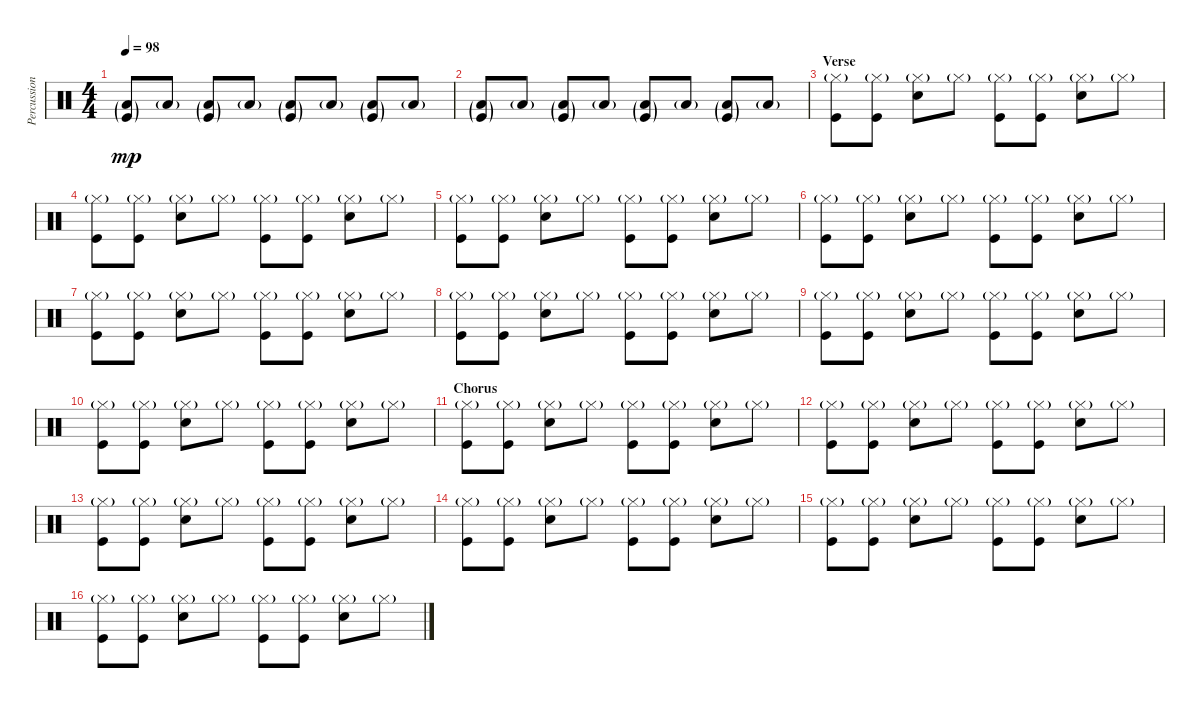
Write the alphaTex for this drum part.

\track ("Percussions" "Percussion") {instrument percussion}
\staff {score}
\articulation defaults
\ts (4 4)
\tempo 98
\clef neutral
\ks c
("Low Floor Tom (hit)"{g} "Kick (hit)"{g}).8{dy mp} "Low Floor Tom (hit)"{g}.8 ("Low Floor Tom (hit)"{g} "Kick (hit)"{g}).8 "Low Floor Tom (hit)"{g}.8 ("Low Floor Tom (hit)"{g} "Kick (hit)"{g}).8 "Low Floor Tom (hit)"{g}.8 ("Low Floor Tom (hit)"{g} "Kick (hit)"{g}).8 "Low Floor Tom (hit)"{g}.8 |
("Low Floor Tom (hit)"{g} "Kick (hit)"{g}).8 "Low Floor Tom (hit)"{g}.8 ("Low Floor Tom (hit)"{g} "Kick (hit)"{g}).8 "Low Floor Tom (hit)"{g}.8 ("Low Floor Tom (hit)"{g} "Kick (hit)"{g}).8 "Low Floor Tom (hit)"{g}.8 ("Low Floor Tom (hit)"{g} "Kick (hit)"{g}).8 "Low Floor Tom (hit)"{g}.8 |
\section ("" "Verse")
("Hi-Hat (closed)"{g} "Kick (hit)").8{volume 13} ("Hi-Hat (closed)"{g} "Kick (hit)").8 ("Hi-Hat (closed)"{g} "Snare (hit) 2").8 "Hi-Hat (closed)"{g}.8 ("Hi-Hat (closed)"{g} "Kick (hit)").8 ("Hi-Hat (closed)"{g} "Kick (hit)").8 ("Hi-Hat (closed)"{g} "Snare (hit) 2").8 "Hi-Hat (closed)"{g}.8 |
("Hi-Hat (closed)"{g} "Kick (hit)").8 ("Hi-Hat (closed)"{g} "Kick (hit)").8 ("Hi-Hat (closed)"{g} "Snare (hit) 2").8 "Hi-Hat (closed)"{g}.8 ("Hi-Hat (closed)"{g} "Kick (hit)").8 ("Hi-Hat (closed)"{g} "Kick (hit)").8 ("Hi-Hat (closed)"{g} "Snare (hit) 2").8 "Hi-Hat (closed)"{g}.8 |
("Hi-Hat (closed)"{g} "Kick (hit)").8 ("Hi-Hat (closed)"{g} "Kick (hit)").8 ("Hi-Hat (closed)"{g} "Snare (hit) 2").8 "Hi-Hat (closed)"{g}.8 ("Hi-Hat (closed)"{g} "Kick (hit)").8 ("Hi-Hat (closed)"{g} "Kick (hit)").8 ("Hi-Hat (closed)"{g} "Snare (hit) 2").8 "Hi-Hat (closed)"{g}.8 |
("Hi-Hat (closed)"{g} "Kick (hit)").8 ("Hi-Hat (closed)"{g} "Kick (hit)").8 ("Hi-Hat (closed)"{g} "Snare (hit) 2").8 "Hi-Hat (closed)"{g}.8 ("Hi-Hat (closed)"{g} "Kick (hit)").8 ("Hi-Hat (closed)"{g} "Kick (hit)").8 ("Hi-Hat (closed)"{g} "Snare (hit) 2").8 "Hi-Hat (closed)"{g}.8 |
("Hi-Hat (closed)"{g} "Kick (hit)").8 ("Hi-Hat (closed)"{g} "Kick (hit)").8 ("Hi-Hat (closed)"{g} "Snare (hit) 2").8 "Hi-Hat (closed)"{g}.8 ("Hi-Hat (closed)"{g} "Kick (hit)").8 ("Hi-Hat (closed)"{g} "Kick (hit)").8 ("Hi-Hat (closed)"{g} "Snare (hit) 2").8 "Hi-Hat (closed)"{g}.8 |
("Hi-Hat (closed)"{g} "Kick (hit)").8 ("Hi-Hat (closed)"{g} "Kick (hit)").8 ("Hi-Hat (closed)"{g} "Snare (hit) 2").8 "Hi-Hat (closed)"{g}.8 ("Hi-Hat (closed)"{g} "Kick (hit)").8 ("Hi-Hat (closed)"{g} "Kick (hit)").8 ("Hi-Hat (closed)"{g} "Snare (hit) 2").8 "Hi-Hat (closed)"{g}.8 |
("Hi-Hat (closed)"{g} "Kick (hit)").8 ("Hi-Hat (closed)"{g} "Kick (hit)").8 ("Hi-Hat (closed)"{g} "Snare (hit) 2").8 "Hi-Hat (closed)"{g}.8 ("Hi-Hat (closed)"{g} "Kick (hit)").8 ("Hi-Hat (closed)"{g} "Kick (hit)").8 ("Hi-Hat (closed)"{g} "Snare (hit) 2").8 "Hi-Hat (closed)"{g}.8 |
("Hi-Hat (closed)"{g} "Kick (hit)").8 ("Hi-Hat (closed)"{g} "Kick (hit)").8 ("Hi-Hat (closed)"{g} "Snare (hit) 2").8 "Hi-Hat (closed)"{g}.8 ("Hi-Hat (closed)"{g} "Kick (hit)").8 ("Hi-Hat (closed)"{g} "Kick (hit)").8 ("Hi-Hat (closed)"{g} "Snare (hit) 2").8 "Hi-Hat (closed)"{g}.8 |
\section ("" "Chorus")
("Hi-Hat (closed)"{g} "Kick (hit)").8{volume 9} ("Hi-Hat (closed)"{g} "Kick (hit)").8 ("Hi-Hat (closed)"{g} "Snare (hit) 2").8 "Hi-Hat (closed)"{g}.8 ("Hi-Hat (closed)"{g} "Kick (hit)").8 ("Hi-Hat (closed)"{g} "Kick (hit)").8 ("Hi-Hat (closed)"{g} "Snare (hit) 2").8 "Hi-Hat (closed)"{g}.8 |
("Hi-Hat (closed)"{g} "Kick (hit)").8 ("Hi-Hat (closed)"{g} "Kick (hit)").8 ("Hi-Hat (closed)"{g} "Snare (hit) 2").8 "Hi-Hat (closed)"{g}.8 ("Hi-Hat (closed)"{g} "Kick (hit)").8 ("Hi-Hat (closed)"{g} "Kick (hit)").8 ("Hi-Hat (closed)"{g} "Snare (hit) 2").8 "Hi-Hat (closed)"{g}.8 |
("Hi-Hat (closed)"{g} "Kick (hit)").8 ("Hi-Hat (closed)"{g} "Kick (hit)").8 ("Hi-Hat (closed)"{g} "Snare (hit) 2").8 "Hi-Hat (closed)"{g}.8 ("Hi-Hat (closed)"{g} "Kick (hit)").8 ("Hi-Hat (closed)"{g} "Kick (hit)").8 ("Hi-Hat (closed)"{g} "Snare (hit) 2").8 "Hi-Hat (closed)"{g}.8 |
("Hi-Hat (closed)"{g} "Kick (hit)").8 ("Hi-Hat (closed)"{g} "Kick (hit)").8 ("Hi-Hat (closed)"{g} "Snare (hit) 2").8 "Hi-Hat (closed)"{g}.8 ("Hi-Hat (closed)"{g} "Kick (hit)").8 ("Hi-Hat (closed)"{g} "Kick (hit)").8 ("Hi-Hat (closed)"{g} "Snare (hit) 2").8 "Hi-Hat (closed)"{g}.8 |
("Hi-Hat (closed)"{g} "Kick (hit)").8 ("Hi-Hat (closed)"{g} "Kick (hit)").8 ("Hi-Hat (closed)"{g} "Snare (hit) 2").8 "Hi-Hat (closed)"{g}.8 ("Hi-Hat (closed)"{g} "Kick (hit)").8 ("Hi-Hat (closed)"{g} "Kick (hit)").8 ("Hi-Hat (closed)"{g} "Snare (hit) 2").8 "Hi-Hat (closed)"{g}.8 |
("Hi-Hat (closed)"{g} "Kick (hit)").8 ("Hi-Hat (closed)"{g} "Kick (hit)").8 ("Hi-Hat (closed)"{g} "Snare (hit) 2").8 "Hi-Hat (closed)"{g}.8 ("Hi-Hat (closed)"{g} "Kick (hit)").8 ("Hi-Hat (closed)"{g} "Kick (hit)").8 ("Hi-Hat (closed)"{g} "Snare (hit) 2").8 "Hi-Hat (closed)"{g}.8
